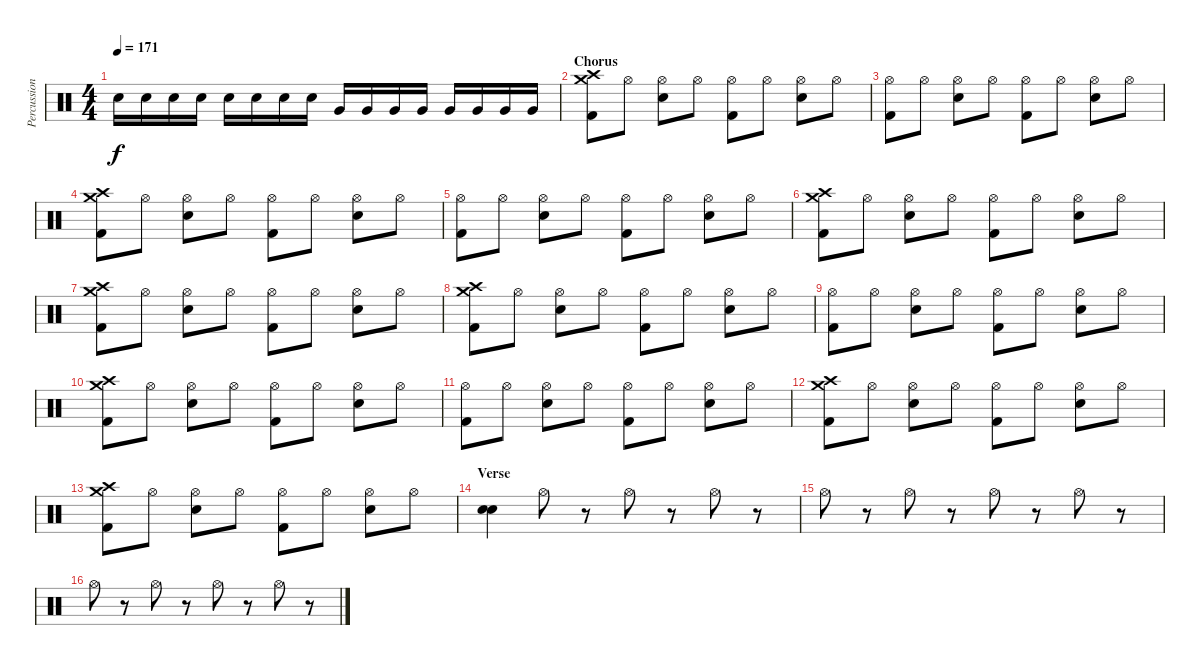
\track ("Percussion" "Percussion") {instrument percussion}
\staff {score}
\articulation defaults
\ts (4 4)
\tempo 171
\clef neutral
\ks c "Snare (hit) 2".16{dy f} "Snare (hit) 2".16 "Snare (hit) 2".16 "Snare (hit) 2".16 "Snare (hit) 2".16 "Snare (hit) 2".16 "Snare (hit) 2".16 "Snare (hit) 2".16 "Very Low Tom (hit)".16 "Very Low Tom (hit)".16 "Very Low Tom (hit)".16 "Very Low Tom (hit)".16 "Very Low Tom (hit)".16 "Very Low Tom (hit)".16 "Very Low Tom (hit)".16 "Very Low Tom (hit)".16
|
\section ("" "Chorus")
("Crash high (hit)" "Crash medium (hit)" "Kick (hit) 2").8 "Hi-Hat (open)".8 ("Hi-Hat (open)" "Snare (hit) 2").8 "Hi-Hat (open)".8 ("Hi-Hat (open)" "Kick (hit) 2").8 "Hi-Hat (open)".8 ("Hi-Hat (open)" "Snare (hit) 2").8 "Hi-Hat (open)".8 |
("Hi-Hat (open)" "Kick (hit) 2").8 "Hi-Hat (open)".8 ("Hi-Hat (open)" "Snare (hit) 2").8 "Hi-Hat (open)".8 ("Hi-Hat (open)" "Kick (hit) 2").8 "Hi-Hat (open)".8 ("Hi-Hat (open)" "Snare (hit) 2").8 "Hi-Hat (open)".8 |
("Crash high (hit)" "Crash medium (hit)" "Kick (hit) 2").8 "Hi-Hat (open)".8 ("Hi-Hat (open)" "Snare (hit) 2").8 "Hi-Hat (open)".8 ("Hi-Hat (open)" "Kick (hit) 2").8 "Hi-Hat (open)".8 ("Hi-Hat (open)" "Snare (hit) 2").8 "Hi-Hat (open)".8 |
("Hi-Hat (open)" "Kick (hit) 2").8 "Hi-Hat (open)".8 ("Hi-Hat (open)" "Snare (hit) 2").8 "Hi-Hat (open)".8 ("Hi-Hat (open)" "Kick (hit) 2").8 "Hi-Hat (open)".8 ("Hi-Hat (open)" "Snare (hit) 2").8 "Hi-Hat (open)".8 |
("Crash high (hit)" "Crash medium (hit)" "Kick (hit) 2").8 "Hi-Hat (open)".8 ("Hi-Hat (open)" "Snare (hit) 2").8 "Hi-Hat (open)".8 ("Hi-Hat (open)" "Kick (hit) 2").8 "Hi-Hat (open)".8 ("Hi-Hat (open)" "Snare (hit) 2").8 "Hi-Hat (open)".8 |
("Crash high (hit)" "Crash medium (hit)" "Kick (hit) 2").8 "Hi-Hat (open)".8 ("Hi-Hat (open)" "Snare (hit) 2").8 "Hi-Hat (open)".8 ("Hi-Hat (open)" "Kick (hit) 2").8 "Hi-Hat (open)".8 ("Hi-Hat (open)" "Snare (hit) 2").8 "Hi-Hat (open)".8 |
("Crash high (hit)" "Crash medium (hit)" "Kick (hit) 2").8 "Hi-Hat (open)".8 ("Hi-Hat (open)" "Snare (hit) 2").8 "Hi-Hat (open)".8 ("Hi-Hat (open)" "Kick (hit) 2").8 "Hi-Hat (open)".8 ("Hi-Hat (open)" "Snare (hit) 2").8 "Hi-Hat (open)".8 |
("Hi-Hat (open)" "Kick (hit) 2").8 "Hi-Hat (open)".8 ("Hi-Hat (open)" "Snare (hit) 2").8 "Hi-Hat (open)".8 ("Hi-Hat (open)" "Kick (hit) 2").8 "Hi-Hat (open)".8 ("Hi-Hat (open)" "Snare (hit) 2").8 "Hi-Hat (open)".8 |
("Crash high (hit)" "Crash medium (hit)" "Kick (hit) 2").8 "Hi-Hat (open)".8 ("Hi-Hat (open)" "Snare (hit) 2").8 "Hi-Hat (open)".8 ("Hi-Hat (open)" "Kick (hit) 2").8 "Hi-Hat (open)".8 ("Hi-Hat (open)" "Snare (hit) 2").8 "Hi-Hat (open)".8 |
("Hi-Hat (open)" "Kick (hit) 2").8 "Hi-Hat (open)".8 ("Hi-Hat (open)" "Snare (hit) 2").8 "Hi-Hat (open)".8 ("Hi-Hat (open)" "Kick (hit) 2").8 "Hi-Hat (open)".8 ("Hi-Hat (open)" "Snare (hit) 2").8 "Hi-Hat (open)".8 |
("Crash high (hit)" "Crash medium (hit)" "Kick (hit) 2").8 "Hi-Hat (open)".8 ("Hi-Hat (open)" "Snare (hit) 2").8 "Hi-Hat (open)".8 ("Hi-Hat (open)" "Kick (hit) 2").8 "Hi-Hat (open)".8 ("Hi-Hat (open)" "Snare (hit) 2").8 "Hi-Hat (open)".8 |
("Crash high (hit)" "Crash medium (hit)" "Kick (hit) 2").8 "Hi-Hat (open)".8 ("Hi-Hat (open)" "Snare (hit) 2").8 "Hi-Hat (open)".8 ("Hi-Hat (open)" "Kick (hit) 2").8 "Hi-Hat (open)".8 ("Hi-Hat (open)" "Snare (hit) 2").8 "Hi-Hat (open)".8 |
\section ("" "Verse")
("Electric Snare (hit)" "Electric Snare (hit)").4 "Hi-Hat (open)".8 r.8 "Hi-Hat (open)".8 r.8 "Hi-Hat (open)".8 r.8 |
"Hi-Hat (open)".8 r.8 "Hi-Hat (open)".8 r.8 "Hi-Hat (open)".8 r.8 "Hi-Hat (open)".8 r.8 |
"Hi-Hat (open)".8 r.8 "Hi-Hat (open)".8 r.8 "Hi-Hat (open)".8 r.8 "Hi-Hat (open)".8 r.8
